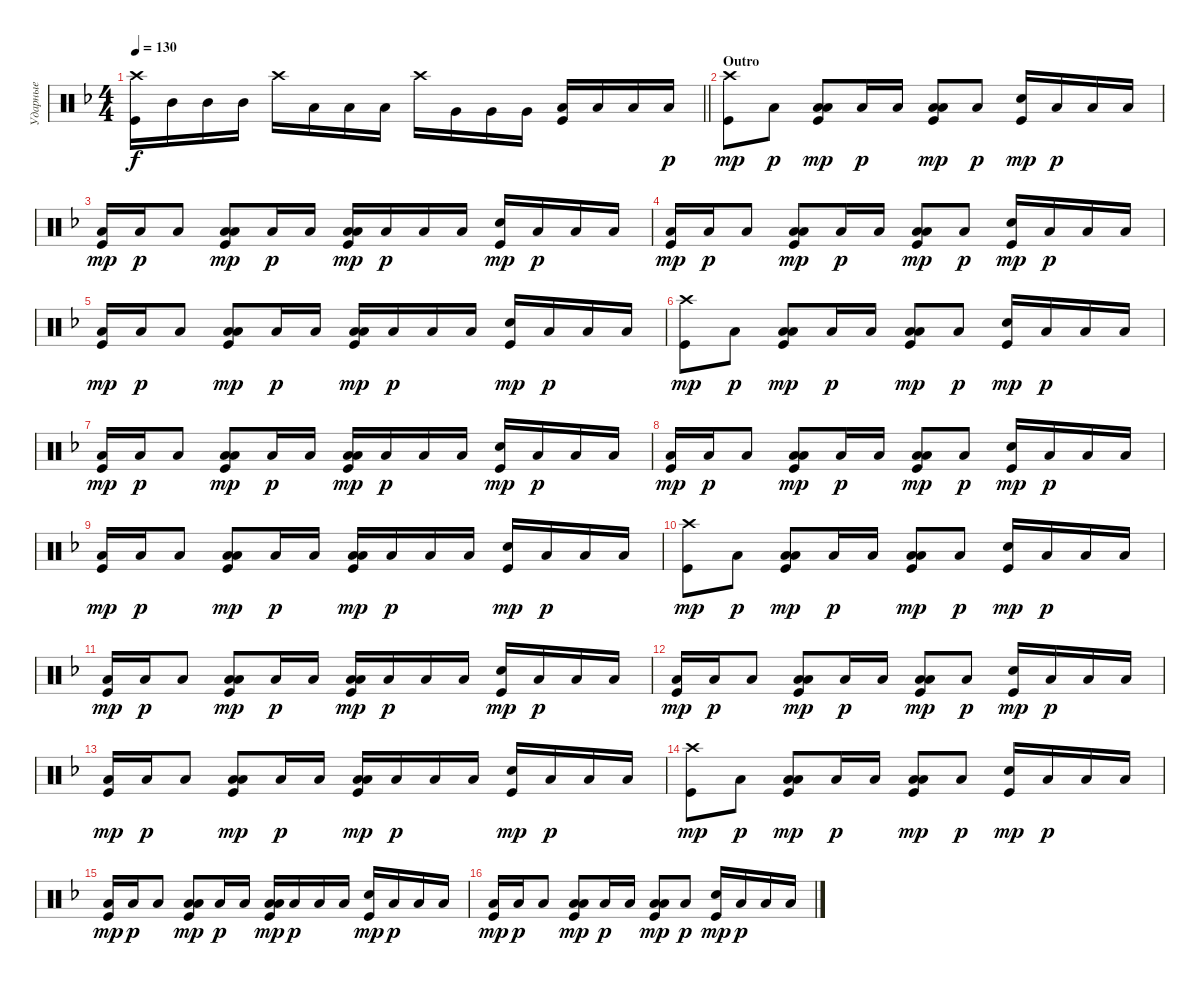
\track ("Ударные" "Ударные") {instrument percussion}
\staff {score}
\articulation defaults
\ts (4 4)
\tempo 130
\clef neutral
\barLineRight lightlight
\ks dminor
("Kick (hit)" "Crash high (hit)").16{dy f} "Mid Tom (hit)".16 "Mid Tom (hit)".16 "Mid Tom (hit)".16 "Crash high (hit)".16 "Low Tom (hit)".16 "Low Tom (hit)".16 "Low Tom (hit)".16 "Crash high (hit)".16 "Very Low Tom (hit)".16 "Very Low Tom (hit)".16 "Very Low Tom (hit)".16 ("Low Floor Tom (hit)" "Kick (hit)").16 "Low Floor Tom (hit)".16 "Low Floor Tom (hit)".16 "Low Floor Tom (hit)".16{dy p} |
\section ("" "Outro")
("Kick (hit)" "Crash high (hit)").8{dy mp} "Low Tom (hit)".8{dy p} ("Low Tom (hit)" "Kick (hit)" "Low Tom (hit)").8{bd 240 dy mp} "Low Tom (hit)".16{dy p} "Low Tom (hit)".16 ("Low Tom (hit)" "Kick (hit)" "Low Tom (hit)").8{bd 240 dy mp} "Low Tom (hit)".8{dy p} ("Kick (hit)" "Snare (hit) 2").16{dy mp} "Low Tom (hit)".16{dy p} "Low Tom (hit)".16 "Low Tom (hit)".16 |
("Low Tom (hit)" "Kick (hit)").16{dy mp} "Low Tom (hit)".16{dy p} "Low Tom (hit)".8{bd 240} ("Low Tom (hit)" "Kick (hit)" "Low Tom (hit)").8{bd 240 dy mp} "Low Tom (hit)".16{dy p} "Low Tom (hit)".16 ("Low Tom (hit)" "Kick (hit)" "Low Tom (hit)").16{bd 240 dy mp} "Low Tom (hit)".16{dy p} "Low Tom (hit)".16 "Low Tom (hit)".16 ("Kick (hit)" "Snare (hit) 2").16{dy mp} "Low Tom (hit)".16{dy p} "Low Tom (hit)".16 "Low Tom (hit)".16 |
("Low Tom (hit)" "Kick (hit)").16{dy mp} "Low Tom (hit)".16{dy p} "Low Tom (hit)".8{bd 240} ("Low Tom (hit)" "Kick (hit)" "Low Tom (hit)").8{bd 240 dy mp} "Low Tom (hit)".16{dy p} "Low Tom (hit)".16 ("Low Tom (hit)" "Kick (hit)" "Low Tom (hit)").8{bd 240 dy mp} "Low Tom (hit)".8{dy p} ("Kick (hit)" "Snare (hit) 2").16{dy mp} "Low Tom (hit)".16{dy p} "Low Tom (hit)".16 "Low Tom (hit)".16 |
("Low Tom (hit)" "Kick (hit)").16{dy mp} "Low Tom (hit)".16{dy p} "Low Tom (hit)".8{bd 240} ("Low Tom (hit)" "Kick (hit)" "Low Tom (hit)").8{bd 240 dy mp} "Low Tom (hit)".16{dy p} "Low Tom (hit)".16 ("Low Tom (hit)" "Kick (hit)" "Low Tom (hit)").16{bd 240 dy mp} "Low Tom (hit)".16{dy p} "Low Tom (hit)".16 "Low Tom (hit)".16 ("Kick (hit)" "Snare (hit) 2").16{dy mp} "Low Tom (hit)".16{dy p} "Low Tom (hit)".16 "Low Tom (hit)".16 |
("Kick (hit)" "Crash high (hit)").8{dy mp} "Low Tom (hit)".8{dy p} ("Low Tom (hit)" "Kick (hit)" "Low Tom (hit)").8{bd 240 dy mp} "Low Tom (hit)".16{dy p} "Low Tom (hit)".16 ("Low Tom (hit)" "Kick (hit)" "Low Tom (hit)").8{bd 240 dy mp} "Low Tom (hit)".8{dy p} ("Kick (hit)" "Snare (hit) 2").16{dy mp} "Low Tom (hit)".16{dy p} "Low Tom (hit)".16 "Low Tom (hit)".16 |
("Low Tom (hit)" "Kick (hit)").16{dy mp} "Low Tom (hit)".16{dy p} "Low Tom (hit)".8{bd 240} ("Low Tom (hit)" "Kick (hit)" "Low Tom (hit)").8{bd 240 dy mp} "Low Tom (hit)".16{dy p} "Low Tom (hit)".16 ("Low Tom (hit)" "Kick (hit)" "Low Tom (hit)").16{bd 240 dy mp} "Low Tom (hit)".16{dy p} "Low Tom (hit)".16 "Low Tom (hit)".16 ("Kick (hit)" "Snare (hit) 2").16{dy mp} "Low Tom (hit)".16{dy p} "Low Tom (hit)".16 "Low Tom (hit)".16 |
("Low Tom (hit)" "Kick (hit)").16{dy mp} "Low Tom (hit)".16{dy p} "Low Tom (hit)".8{bd 240} ("Low Tom (hit)" "Kick (hit)" "Low Tom (hit)").8{bd 240 dy mp} "Low Tom (hit)".16{dy p} "Low Tom (hit)".16 ("Low Tom (hit)" "Kick (hit)" "Low Tom (hit)").8{bd 240 dy mp} "Low Tom (hit)".8{dy p} ("Kick (hit)" "Snare (hit) 2").16{dy mp} "Low Tom (hit)".16{dy p} "Low Tom (hit)".16 "Low Tom (hit)".16 |
("Low Tom (hit)" "Kick (hit)").16{dy mp} "Low Tom (hit)".16{dy p} "Low Tom (hit)".8{bd 240} ("Low Tom (hit)" "Kick (hit)" "Low Tom (hit)").8{bd 240 dy mp} "Low Tom (hit)".16{dy p} "Low Tom (hit)".16 ("Low Tom (hit)" "Kick (hit)" "Low Tom (hit)").16{bd 240 dy mp} "Low Tom (hit)".16{dy p} "Low Tom (hit)".16 "Low Tom (hit)".16 ("Kick (hit)" "Snare (hit) 2").16{dy mp} "Low Tom (hit)".16{dy p} "Low Tom (hit)".16 "Low Tom (hit)".16 |
("Kick (hit)" "Crash high (hit)").8{dy mp} "Low Tom (hit)".8{dy p} ("Low Tom (hit)" "Kick (hit)" "Low Tom (hit)").8{bd 240 dy mp} "Low Tom (hit)".16{dy p} "Low Tom (hit)".16 ("Low Tom (hit)" "Kick (hit)" "Low Tom (hit)").8{bd 240 dy mp} "Low Tom (hit)".8{dy p} ("Kick (hit)" "Snare (hit) 2").16{dy mp} "Low Tom (hit)".16{dy p} "Low Tom (hit)".16 "Low Tom (hit)".16 |
("Low Tom (hit)" "Kick (hit)").16{dy mp} "Low Tom (hit)".16{dy p} "Low Tom (hit)".8{bd 240} ("Low Tom (hit)" "Kick (hit)" "Low Tom (hit)").8{bd 240 dy mp} "Low Tom (hit)".16{dy p} "Low Tom (hit)".16 ("Low Tom (hit)" "Kick (hit)" "Low Tom (hit)").16{bd 240 dy mp} "Low Tom (hit)".16{dy p} "Low Tom (hit)".16 "Low Tom (hit)".16 ("Kick (hit)" "Snare (hit) 2").16{dy mp} "Low Tom (hit)".16{dy p} "Low Tom (hit)".16 "Low Tom (hit)".16 |
("Low Tom (hit)" "Kick (hit)").16{dy mp} "Low Tom (hit)".16{dy p} "Low Tom (hit)".8{bd 240} ("Low Tom (hit)" "Kick (hit)" "Low Tom (hit)").8{bd 240 dy mp} "Low Tom (hit)".16{dy p} "Low Tom (hit)".16 ("Low Tom (hit)" "Kick (hit)" "Low Tom (hit)").8{bd 240 dy mp} "Low Tom (hit)".8{dy p} ("Kick (hit)" "Snare (hit) 2").16{dy mp} "Low Tom (hit)".16{dy p} "Low Tom (hit)".16 "Low Tom (hit)".16 |
("Low Tom (hit)" "Kick (hit)").16{dy mp} "Low Tom (hit)".16{dy p} "Low Tom (hit)".8{bd 240} ("Low Tom (hit)" "Kick (hit)" "Low Tom (hit)").8{bd 240 dy mp} "Low Tom (hit)".16{dy p} "Low Tom (hit)".16 ("Low Tom (hit)" "Kick (hit)" "Low Tom (hit)").16{bd 240 dy mp} "Low Tom (hit)".16{dy p} "Low Tom (hit)".16 "Low Tom (hit)".16 ("Kick (hit)" "Snare (hit) 2").16{dy mp} "Low Tom (hit)".16{dy p} "Low Tom (hit)".16 "Low Tom (hit)".16 |
("Kick (hit)" "Crash high (hit)").8{dy mp} "Low Tom (hit)".8{dy p} ("Low Tom (hit)" "Kick (hit)" "Low Tom (hit)").8{bd 240 dy mp} "Low Tom (hit)".16{dy p} "Low Tom (hit)".16 ("Low Tom (hit)" "Kick (hit)" "Low Tom (hit)").8{bd 240 dy mp} "Low Tom (hit)".8{dy p} ("Kick (hit)" "Snare (hit) 2").16{dy mp} "Low Tom (hit)".16{dy p} "Low Tom (hit)".16 "Low Tom (hit)".16 |
("Low Tom (hit)" "Kick (hit)").16{dy mp} "Low Tom (hit)".16{dy p} "Low Tom (hit)".8{bd 240} ("Low Tom (hit)" "Kick (hit)" "Low Tom (hit)").8{bd 240 dy mp} "Low Tom (hit)".16{dy p} "Low Tom (hit)".16 ("Low Tom (hit)" "Kick (hit)" "Low Tom (hit)").16{bd 240 dy mp} "Low Tom (hit)".16{dy p} "Low Tom (hit)".16 "Low Tom (hit)".16 ("Kick (hit)" "Snare (hit) 2").16{dy mp} "Low Tom (hit)".16{dy p} "Low Tom (hit)".16 "Low Tom (hit)".16 |
("Low Tom (hit)" "Kick (hit)").16{dy mp} "Low Tom (hit)".16{dy p} "Low Tom (hit)".8{bd 240} ("Low Tom (hit)" "Kick (hit)" "Low Tom (hit)").8{bd 240 dy mp} "Low Tom (hit)".16{dy p} "Low Tom (hit)".16 ("Low Tom (hit)" "Kick (hit)" "Low Tom (hit)").8{bd 240 dy mp} "Low Tom (hit)".8{dy p} ("Kick (hit)" "Snare (hit) 2").16{dy mp} "Low Tom (hit)".16{dy p} "Low Tom (hit)".16 "Low Tom (hit)".16
